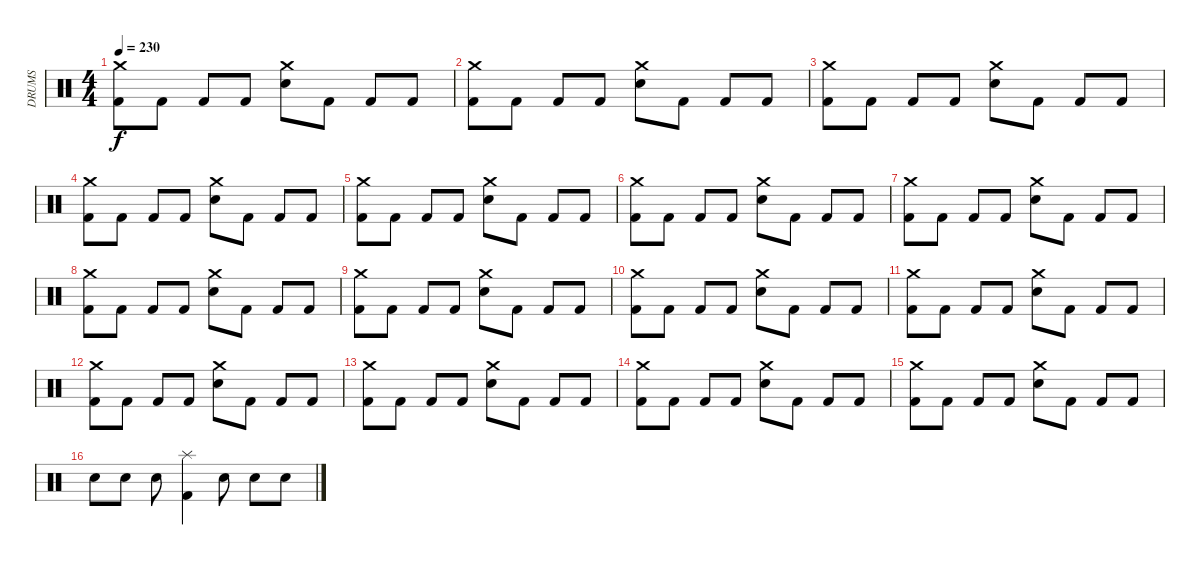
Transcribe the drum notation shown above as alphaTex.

\track ("DRUMS" "DRUMS") {instrument percussion}
\staff {score}
\articulation defaults
\ts (4 4)
\tempo 230
\clef neutral
\ks c
("Crash medium (hit)" "Kick (hit) 2").8{dy f} "Kick (hit) 2".8 "Kick (hit) 2".8 "Kick (hit) 2".8 ("Crash medium (hit)" "Electric Snare (hit)").8 "Kick (hit) 2".8 "Kick (hit) 2".8 "Kick (hit) 2".8 |
("Crash medium (hit)" "Kick (hit) 2").8 "Kick (hit) 2".8 "Kick (hit) 2".8 "Kick (hit) 2".8 ("Crash medium (hit)" "Electric Snare (hit)").8 "Kick (hit) 2".8 "Kick (hit) 2".8 "Kick (hit) 2".8 |
("Crash medium (hit)" "Kick (hit) 2").8 "Kick (hit) 2".8 "Kick (hit) 2".8 "Kick (hit) 2".8 ("Crash medium (hit)" "Electric Snare (hit)").8 "Kick (hit) 2".8 "Kick (hit) 2".8 "Kick (hit) 2".8 |
("Crash medium (hit)" "Kick (hit) 2").8 "Kick (hit) 2".8 "Kick (hit) 2".8 "Kick (hit) 2".8 ("Crash medium (hit)" "Electric Snare (hit)").8 "Kick (hit) 2".8 "Kick (hit) 2".8 "Kick (hit) 2".8 |
("Crash medium (hit)" "Kick (hit) 2").8 "Kick (hit) 2".8 "Kick (hit) 2".8 "Kick (hit) 2".8 ("Crash medium (hit)" "Electric Snare (hit)").8 "Kick (hit) 2".8 "Kick (hit) 2".8 "Kick (hit) 2".8 |
("Crash medium (hit)" "Kick (hit) 2").8 "Kick (hit) 2".8 "Kick (hit) 2".8 "Kick (hit) 2".8 ("Crash medium (hit)" "Electric Snare (hit)").8 "Kick (hit) 2".8 "Kick (hit) 2".8 "Kick (hit) 2".8 |
("Crash medium (hit)" "Kick (hit) 2").8 "Kick (hit) 2".8 "Kick (hit) 2".8 "Kick (hit) 2".8 ("Crash medium (hit)" "Electric Snare (hit)").8 "Kick (hit) 2".8 "Kick (hit) 2".8 "Kick (hit) 2".8 |
("Crash medium (hit)" "Kick (hit) 2").8 "Kick (hit) 2".8 "Kick (hit) 2".8 "Kick (hit) 2".8 ("Crash medium (hit)" "Electric Snare (hit)").8 "Kick (hit) 2".8 "Kick (hit) 2".8 "Kick (hit) 2".8 |
("Crash medium (hit)" "Kick (hit) 2").8 "Kick (hit) 2".8 "Kick (hit) 2".8 "Kick (hit) 2".8 ("Crash medium (hit)" "Electric Snare (hit)").8 "Kick (hit) 2".8 "Kick (hit) 2".8 "Kick (hit) 2".8 |
("Crash medium (hit)" "Kick (hit) 2").8 "Kick (hit) 2".8 "Kick (hit) 2".8 "Kick (hit) 2".8 ("Crash medium (hit)" "Electric Snare (hit)").8 "Kick (hit) 2".8 "Kick (hit) 2".8 "Kick (hit) 2".8 |
("Crash medium (hit)" "Kick (hit) 2").8 "Kick (hit) 2".8 "Kick (hit) 2".8 "Kick (hit) 2".8 ("Crash medium (hit)" "Electric Snare (hit)").8 "Kick (hit) 2".8 "Kick (hit) 2".8 "Kick (hit) 2".8 |
("Crash medium (hit)" "Kick (hit) 2").8 "Kick (hit) 2".8 "Kick (hit) 2".8 "Kick (hit) 2".8 ("Crash medium (hit)" "Electric Snare (hit)").8 "Kick (hit) 2".8 "Kick (hit) 2".8 "Kick (hit) 2".8 |
("Crash medium (hit)" "Kick (hit) 2").8 "Kick (hit) 2".8 "Kick (hit) 2".8 "Kick (hit) 2".8 ("Crash medium (hit)" "Electric Snare (hit)").8 "Kick (hit) 2".8 "Kick (hit) 2".8 "Kick (hit) 2".8 |
("Crash medium (hit)" "Kick (hit) 2").8 "Kick (hit) 2".8 "Kick (hit) 2".8 "Kick (hit) 2".8 ("Crash medium (hit)" "Electric Snare (hit)").8 "Kick (hit) 2".8 "Kick (hit) 2".8 "Kick (hit) 2".8 |
("Crash medium (hit)" "Kick (hit) 2").8 "Kick (hit) 2".8 "Kick (hit) 2".8 "Kick (hit) 2".8 ("Crash medium (hit)" "Electric Snare (hit)").8 "Kick (hit) 2".8 "Kick (hit) 2".8 "Kick (hit) 2".8 |
"Snare (hit) 2".8 "Snare (hit) 2".8 "Snare (hit) 2".8 ("Splash (hit)" "Kick (hit) 2").4 "Snare (hit) 2".8 "Snare (hit) 2".8 "Snare (hit) 2".8
